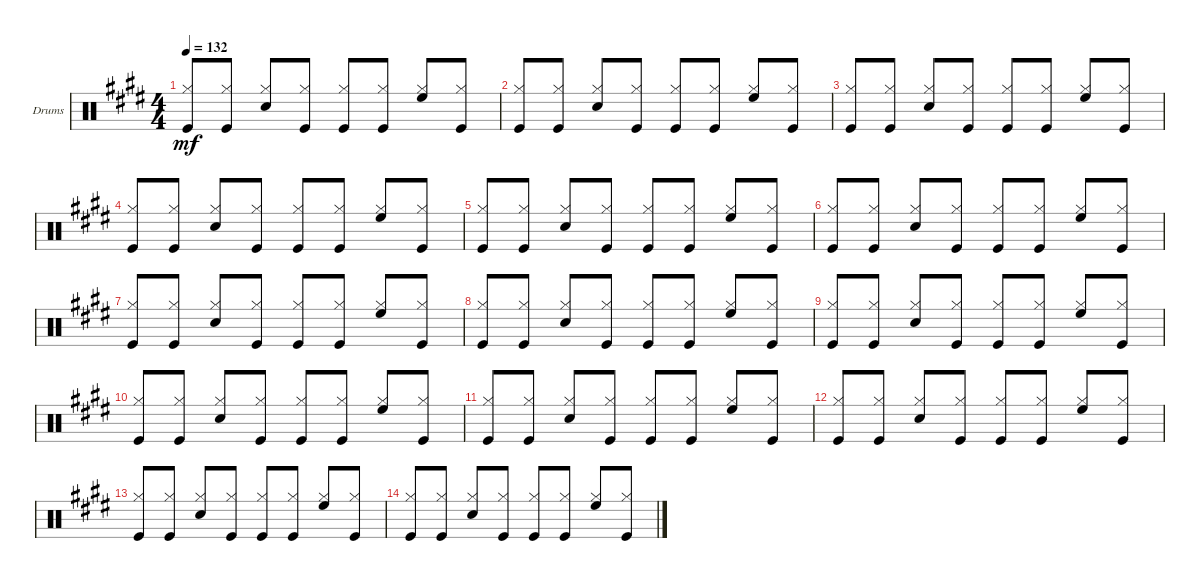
\defaultSystemsLayout 4
\bracketExtendMode groupsimilarinstruments
\firstSystemTrackNameOrientation horizontal
\otherSystemsTrackNameOrientation horizontal
\track ("PETER CRISS" "Drums") {solo instrument percussion}
\staff {score}
\articulation defaults
\ts (4 4)
\tempo 132
\clef neutral
\ks e
("Kick (hit)" "Hi-Hat (closed)").8{dy mf beam invert} ("Kick (hit)" "Hi-Hat (closed)").8 ("Snare (hit) 2" "Hi-Hat (closed)").8{beam invert} ("Kick (hit)" "Hi-Hat (closed)").8 ("Kick (hit)" "Hi-Hat (closed)").8{beam invert} ("Kick (hit)" "Hi-Hat (closed)").8 ("High Floor Tom (hit)" "Hi-Hat (closed)").8{beam invert} ("Kick (hit)" "Hi-Hat (closed)").8 |
("Kick (hit)" "Hi-Hat (closed)").8{beam invert} ("Kick (hit)" "Hi-Hat (closed)").8 ("Snare (hit) 2" "Hi-Hat (closed)").8{beam invert} ("Kick (hit)" "Hi-Hat (closed)").8 ("Kick (hit)" "Hi-Hat (closed)").8{beam invert} ("Kick (hit)" "Hi-Hat (closed)").8 ("High Floor Tom (hit)" "Hi-Hat (closed)").8{beam invert} ("Kick (hit)" "Hi-Hat (closed)").8 |
("Kick (hit)" "Hi-Hat (closed)").8{beam invert} ("Kick (hit)" "Hi-Hat (closed)").8 ("Snare (hit) 2" "Hi-Hat (closed)").8{beam invert} ("Kick (hit)" "Hi-Hat (closed)").8 ("Kick (hit)" "Hi-Hat (closed)").8{beam invert} ("Kick (hit)" "Hi-Hat (closed)").8 ("High Floor Tom (hit)" "Hi-Hat (closed)").8{beam invert} ("Kick (hit)" "Hi-Hat (closed)").8 |
("Kick (hit)" "Hi-Hat (closed)").8{beam invert} ("Kick (hit)" "Hi-Hat (closed)").8 ("Snare (hit) 2" "Hi-Hat (closed)").8{beam invert} ("Kick (hit)" "Hi-Hat (closed)").8 ("Kick (hit)" "Hi-Hat (closed)").8{beam invert} ("Kick (hit)" "Hi-Hat (closed)").8 ("High Floor Tom (hit)" "Hi-Hat (closed)").8{beam invert} ("Kick (hit)" "Hi-Hat (closed)").8 |
("Kick (hit)" "Hi-Hat (closed)").8{beam invert} ("Kick (hit)" "Hi-Hat (closed)").8 ("Snare (hit) 2" "Hi-Hat (closed)").8{beam invert} ("Kick (hit)" "Hi-Hat (closed)").8 ("Kick (hit)" "Hi-Hat (closed)").8{beam invert} ("Kick (hit)" "Hi-Hat (closed)").8 ("High Floor Tom (hit)" "Hi-Hat (closed)").8{beam invert} ("Kick (hit)" "Hi-Hat (closed)").8 |
("Kick (hit)" "Hi-Hat (closed)").8{beam invert} ("Kick (hit)" "Hi-Hat (closed)").8 ("Snare (hit) 2" "Hi-Hat (closed)").8{beam invert} ("Kick (hit)" "Hi-Hat (closed)").8 ("Kick (hit)" "Hi-Hat (closed)").8{beam invert} ("Kick (hit)" "Hi-Hat (closed)").8 ("High Floor Tom (hit)" "Hi-Hat (closed)").8{beam invert} ("Kick (hit)" "Hi-Hat (closed)").8 |
("Kick (hit)" "Hi-Hat (closed)").8{beam invert} ("Kick (hit)" "Hi-Hat (closed)").8 ("Snare (hit) 2" "Hi-Hat (closed)").8{beam invert} ("Kick (hit)" "Hi-Hat (closed)").8 ("Kick (hit)" "Hi-Hat (closed)").8{beam invert} ("Kick (hit)" "Hi-Hat (closed)").8 ("High Floor Tom (hit)" "Hi-Hat (closed)").8{beam invert} ("Kick (hit)" "Hi-Hat (closed)").8 |
("Kick (hit)" "Hi-Hat (closed)").8{beam invert} ("Kick (hit)" "Hi-Hat (closed)").8 ("Snare (hit) 2" "Hi-Hat (closed)").8{beam invert} ("Kick (hit)" "Hi-Hat (closed)").8 ("Kick (hit)" "Hi-Hat (closed)").8{beam invert} ("Kick (hit)" "Hi-Hat (closed)").8 ("High Floor Tom (hit)" "Hi-Hat (closed)").8{beam invert} ("Kick (hit)" "Hi-Hat (closed)").8 |
("Kick (hit)" "Hi-Hat (closed)").8{beam invert} ("Kick (hit)" "Hi-Hat (closed)").8 ("Snare (hit) 2" "Hi-Hat (closed)").8{beam invert} ("Kick (hit)" "Hi-Hat (closed)").8 ("Kick (hit)" "Hi-Hat (closed)").8{beam invert} ("Kick (hit)" "Hi-Hat (closed)").8 ("High Floor Tom (hit)" "Hi-Hat (closed)").8{beam invert} ("Kick (hit)" "Hi-Hat (closed)").8 |
("Kick (hit)" "Hi-Hat (closed)").8{beam invert} ("Kick (hit)" "Hi-Hat (closed)").8 ("Snare (hit) 2" "Hi-Hat (closed)").8{beam invert} ("Kick (hit)" "Hi-Hat (closed)").8 ("Kick (hit)" "Hi-Hat (closed)").8{beam invert} ("Kick (hit)" "Hi-Hat (closed)").8 ("High Floor Tom (hit)" "Hi-Hat (closed)").8{beam invert} ("Kick (hit)" "Hi-Hat (closed)").8 |
("Kick (hit)" "Hi-Hat (closed)").8{beam invert} ("Kick (hit)" "Hi-Hat (closed)").8 ("Snare (hit) 2" "Hi-Hat (closed)").8{beam invert} ("Kick (hit)" "Hi-Hat (closed)").8 ("Kick (hit)" "Hi-Hat (closed)").8{beam invert} ("Kick (hit)" "Hi-Hat (closed)").8 ("High Floor Tom (hit)" "Hi-Hat (closed)").8{beam invert} ("Kick (hit)" "Hi-Hat (closed)").8 |
("Kick (hit)" "Hi-Hat (closed)").8{beam invert} ("Kick (hit)" "Hi-Hat (closed)").8 ("Snare (hit) 2" "Hi-Hat (closed)").8{beam invert} ("Kick (hit)" "Hi-Hat (closed)").8 ("Kick (hit)" "Hi-Hat (closed)").8{beam invert} ("Kick (hit)" "Hi-Hat (closed)").8 ("High Floor Tom (hit)" "Hi-Hat (closed)").8{beam invert} ("Kick (hit)" "Hi-Hat (closed)").8 |
("Kick (hit)" "Hi-Hat (closed)").8{beam invert} ("Kick (hit)" "Hi-Hat (closed)").8 ("Snare (hit) 2" "Hi-Hat (closed)").8{beam invert} ("Kick (hit)" "Hi-Hat (closed)").8 ("Kick (hit)" "Hi-Hat (closed)").8{beam invert} ("Kick (hit)" "Hi-Hat (closed)").8 ("High Floor Tom (hit)" "Hi-Hat (closed)").8{beam invert} ("Kick (hit)" "Hi-Hat (closed)").8 |
("Kick (hit)" "Hi-Hat (closed)").8{beam invert} ("Kick (hit)" "Hi-Hat (closed)").8 ("Snare (hit) 2" "Hi-Hat (closed)").8{beam invert} ("Kick (hit)" "Hi-Hat (closed)").8 ("Kick (hit)" "Hi-Hat (closed)").8{beam invert} ("Kick (hit)" "Hi-Hat (closed)").8 ("High Floor Tom (hit)" "Hi-Hat (closed)").8{beam invert} ("Kick (hit)" "Hi-Hat (closed)").8
